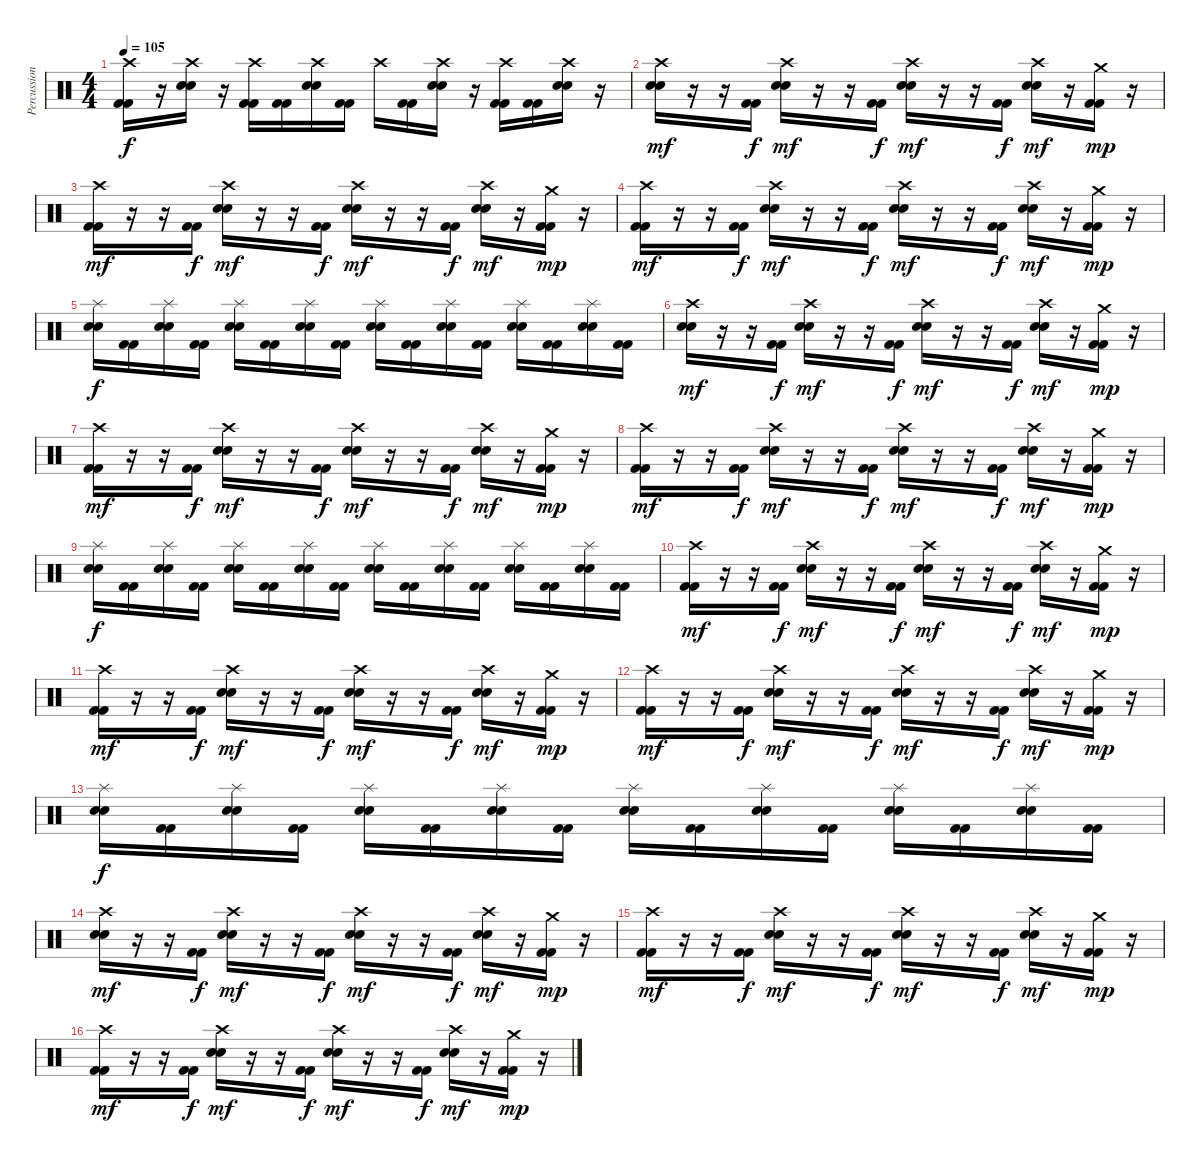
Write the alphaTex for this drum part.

\track ("Percussions" "Percussion") {instrument percussion}
\staff {score}
\articulation defaults
\ts (4 4)
\tempo 105
\clef neutral
\ks c
("Crash high (hit)" "Kick (hit) 2" "Kick (hit) 2").16{dy f} r.16 ("Crash high (hit)" "Electric Snare (hit)" "Electric Snare (hit)").16 r.16 ("Crash high (hit)" "Kick (hit) 2" "Kick (hit) 2").16 ("Kick (hit) 2" "Kick (hit) 2").16 ("Crash high (hit)" "Electric Snare (hit)" "Electric Snare (hit)").16 ("Kick (hit) 2" "Kick (hit) 2").16 "Crash high (hit)".16 ("Kick (hit) 2" "Kick (hit) 2").16 ("Crash high (hit)" "Electric Snare (hit)" "Electric Snare (hit)").16 r.16 ("Crash high (hit)" "Kick (hit) 2" "Kick (hit) 2").16 ("Kick (hit) 2" "Kick (hit) 2").16 ("Crash high (hit)" "Electric Snare (hit)" "Electric Snare (hit)").16 r.16 |
("Crash high (hit)" "Electric Snare (hit)" "Electric Snare (hit)").16{dy mf} r.16 r.16 ("Kick (hit) 2" "Kick (hit) 2").16{dy f} ("Crash high (hit)" "Electric Snare (hit)" "Electric Snare (hit)").16{dy mf} r.16 r.16 ("Kick (hit) 2" "Kick (hit) 2").16{dy f} ("Crash high (hit)" "Electric Snare (hit)" "Electric Snare (hit)").16{dy mf} r.16 r.16 ("Kick (hit) 2" "Kick (hit) 2").16{dy f} ("Crash high (hit)" "Electric Snare (hit)" "Electric Snare (hit)").16{dy mf} r.16 ("Crash medium (hit)" "Kick (hit) 2" "Kick (hit) 2").16{dy mp} r.16 |
("Crash high (hit)" "Kick (hit) 2" "Kick (hit) 2").16{dy mf} r.16 r.16 ("Kick (hit) 2" "Kick (hit) 2").16{dy f} ("Crash high (hit)" "Electric Snare (hit)" "Electric Snare (hit)").16{dy mf} r.16 r.16 ("Kick (hit) 2" "Kick (hit) 2").16{dy f} ("Crash high (hit)" "Electric Snare (hit)" "Electric Snare (hit)").16{dy mf} r.16 r.16 ("Kick (hit) 2" "Kick (hit) 2").16{dy f} ("Crash high (hit)" "Electric Snare (hit)" "Electric Snare (hit)").16{dy mf} r.16 ("Crash medium (hit)" "Kick (hit) 2" "Kick (hit) 2").16{dy mp} r.16 |
("Crash high (hit)" "Kick (hit) 2" "Kick (hit) 2").16{dy mf} r.16 r.16 ("Kick (hit) 2" "Kick (hit) 2").16{dy f} ("Crash high (hit)" "Electric Snare (hit)" "Electric Snare (hit)").16{dy mf} r.16 r.16 ("Kick (hit) 2" "Kick (hit) 2").16{dy f} ("Crash high (hit)" "Electric Snare (hit)" "Electric Snare (hit)").16{dy mf} r.16 r.16 ("Kick (hit) 2" "Kick (hit) 2").16{dy f} ("Crash high (hit)" "Electric Snare (hit)" "Electric Snare (hit)").16{dy mf} r.16 ("Crash medium (hit)" "Kick (hit) 2" "Kick (hit) 2").16{dy mp} r.16 |
("Splash (hit)" "Electric Snare (hit)" "Electric Snare (hit)").16{dy f} ("Kick (hit) 2" "Kick (hit) 2").16 ("Splash (hit)" "Electric Snare (hit)" "Electric Snare (hit)").16 ("Kick (hit) 2" "Kick (hit) 2").16 ("Splash (hit)" "Electric Snare (hit)" "Electric Snare (hit)").16 ("Kick (hit) 2" "Kick (hit) 2").16 ("Splash (hit)" "Electric Snare (hit)" "Electric Snare (hit)").16 ("Kick (hit) 2" "Kick (hit) 2").16 ("Splash (hit)" "Electric Snare (hit)" "Electric Snare (hit)").16 ("Kick (hit) 2" "Kick (hit) 2").16 ("Splash (hit)" "Electric Snare (hit)" "Electric Snare (hit)").16 ("Kick (hit) 2" "Kick (hit) 2").16 ("Splash (hit)" "Electric Snare (hit)" "Electric Snare (hit)").16 ("Kick (hit) 2" "Kick (hit) 2").16 ("Splash (hit)" "Electric Snare (hit)" "Electric Snare (hit)").16 ("Kick (hit) 2" "Kick (hit) 2").16 |
("Crash high (hit)" "Electric Snare (hit)" "Electric Snare (hit)").16{dy mf} r.16 r.16 ("Kick (hit) 2" "Kick (hit) 2").16{dy f} ("Crash high (hit)" "Electric Snare (hit)" "Electric Snare (hit)").16{dy mf} r.16 r.16 ("Kick (hit) 2" "Kick (hit) 2").16{dy f} ("Crash high (hit)" "Electric Snare (hit)" "Electric Snare (hit)").16{dy mf} r.16 r.16 ("Kick (hit) 2" "Kick (hit) 2").16{dy f} ("Crash high (hit)" "Electric Snare (hit)" "Electric Snare (hit)").16{dy mf} r.16 ("Crash medium (hit)" "Kick (hit) 2" "Kick (hit) 2").16{dy mp} r.16 |
("Crash high (hit)" "Kick (hit) 2" "Kick (hit) 2").16{dy mf} r.16 r.16 ("Kick (hit) 2" "Kick (hit) 2").16{dy f} ("Crash high (hit)" "Electric Snare (hit)" "Electric Snare (hit)").16{dy mf} r.16 r.16 ("Kick (hit) 2" "Kick (hit) 2").16{dy f} ("Crash high (hit)" "Electric Snare (hit)" "Electric Snare (hit)").16{dy mf} r.16 r.16 ("Kick (hit) 2" "Kick (hit) 2").16{dy f} ("Crash high (hit)" "Electric Snare (hit)" "Electric Snare (hit)").16{dy mf} r.16 ("Crash medium (hit)" "Kick (hit) 2" "Kick (hit) 2").16{dy mp} r.16 |
("Crash high (hit)" "Kick (hit) 2" "Kick (hit) 2").16{dy mf} r.16 r.16 ("Kick (hit) 2" "Kick (hit) 2").16{dy f} ("Crash high (hit)" "Electric Snare (hit)" "Electric Snare (hit)").16{dy mf} r.16 r.16 ("Kick (hit) 2" "Kick (hit) 2").16{dy f} ("Crash high (hit)" "Electric Snare (hit)" "Electric Snare (hit)").16{dy mf} r.16 r.16 ("Kick (hit) 2" "Kick (hit) 2").16{dy f} ("Crash high (hit)" "Electric Snare (hit)" "Electric Snare (hit)").16{dy mf} r.16 ("Crash medium (hit)" "Kick (hit) 2" "Kick (hit) 2").16{dy mp} r.16 |
("Splash (hit)" "Electric Snare (hit)" "Electric Snare (hit)").16{dy f} ("Kick (hit) 2" "Kick (hit) 2").16 ("Splash (hit)" "Electric Snare (hit)" "Electric Snare (hit)").16 ("Kick (hit) 2" "Kick (hit) 2").16 ("Splash (hit)" "Electric Snare (hit)" "Electric Snare (hit)").16 ("Kick (hit) 2" "Kick (hit) 2").16 ("Splash (hit)" "Electric Snare (hit)" "Electric Snare (hit)").16 ("Kick (hit) 2" "Kick (hit) 2").16 ("Splash (hit)" "Electric Snare (hit)" "Electric Snare (hit)").16 ("Kick (hit) 2" "Kick (hit) 2").16 ("Splash (hit)" "Electric Snare (hit)" "Electric Snare (hit)").16 ("Kick (hit) 2" "Kick (hit) 2").16 ("Splash (hit)" "Electric Snare (hit)" "Electric Snare (hit)").16 ("Kick (hit) 2" "Kick (hit) 2").16 ("Splash (hit)" "Electric Snare (hit)" "Electric Snare (hit)").16 ("Kick (hit) 2" "Kick (hit) 2").16 |
("Crash high (hit)" "Kick (hit) 2" "Kick (hit) 2").16{dy mf} r.16 r.16 ("Kick (hit) 2" "Kick (hit) 2").16{dy f} ("Crash high (hit)" "Electric Snare (hit)" "Electric Snare (hit)").16{dy mf} r.16 r.16 ("Kick (hit) 2" "Kick (hit) 2").16{dy f} ("Crash high (hit)" "Electric Snare (hit)" "Electric Snare (hit)").16{dy mf} r.16 r.16 ("Kick (hit) 2" "Kick (hit) 2").16{dy f} ("Crash high (hit)" "Electric Snare (hit)" "Electric Snare (hit)").16{dy mf} r.16 ("Crash medium (hit)" "Kick (hit) 2" "Kick (hit) 2").16{dy mp} r.16 |
("Crash high (hit)" "Kick (hit) 2" "Kick (hit) 2").16{dy mf} r.16 r.16 ("Kick (hit) 2" "Kick (hit) 2").16{dy f} ("Crash high (hit)" "Electric Snare (hit)" "Electric Snare (hit)").16{dy mf} r.16 r.16 ("Kick (hit) 2" "Kick (hit) 2").16{dy f} ("Crash high (hit)" "Electric Snare (hit)" "Electric Snare (hit)").16{dy mf} r.16 r.16 ("Kick (hit) 2" "Kick (hit) 2").16{dy f} ("Crash high (hit)" "Electric Snare (hit)" "Electric Snare (hit)").16{dy mf} r.16 ("Crash medium (hit)" "Kick (hit) 2" "Kick (hit) 2").16{dy mp} r.16 |
("Crash high (hit)" "Kick (hit) 2" "Kick (hit) 2").16{dy mf} r.16 r.16 ("Kick (hit) 2" "Kick (hit) 2").16{dy f} ("Crash high (hit)" "Electric Snare (hit)" "Electric Snare (hit)").16{dy mf} r.16 r.16 ("Kick (hit) 2" "Kick (hit) 2").16{dy f} ("Crash high (hit)" "Electric Snare (hit)" "Electric Snare (hit)").16{dy mf} r.16 r.16 ("Kick (hit) 2" "Kick (hit) 2").16{dy f} ("Crash high (hit)" "Electric Snare (hit)" "Electric Snare (hit)").16{dy mf} r.16 ("Crash medium (hit)" "Kick (hit) 2" "Kick (hit) 2").16{dy mp} r.16 |
("Splash (hit)" "Electric Snare (hit)" "Electric Snare (hit)").16{dy f} ("Kick (hit) 2" "Kick (hit) 2").16 ("Splash (hit)" "Electric Snare (hit)" "Electric Snare (hit)").16 ("Kick (hit) 2" "Kick (hit) 2").16 ("Splash (hit)" "Electric Snare (hit)" "Electric Snare (hit)").16 ("Kick (hit) 2" "Kick (hit) 2").16 ("Splash (hit)" "Electric Snare (hit)" "Electric Snare (hit)").16 ("Kick (hit) 2" "Kick (hit) 2").16 ("Splash (hit)" "Electric Snare (hit)" "Electric Snare (hit)").16 ("Kick (hit) 2" "Kick (hit) 2").16 ("Splash (hit)" "Electric Snare (hit)" "Electric Snare (hit)").16 ("Kick (hit) 2" "Kick (hit) 2").16 ("Splash (hit)" "Electric Snare (hit)" "Electric Snare (hit)").16 ("Kick (hit) 2" "Kick (hit) 2").16 ("Splash (hit)" "Electric Snare (hit)" "Electric Snare (hit)").16 ("Kick (hit) 2" "Kick (hit) 2").16 |
("Crash high (hit)" "Electric Snare (hit)" "Electric Snare (hit)").16{dy mf} r.16 r.16 ("Kick (hit) 2" "Kick (hit) 2").16{dy f} ("Crash high (hit)" "Electric Snare (hit)" "Electric Snare (hit)").16{dy mf} r.16 r.16 ("Kick (hit) 2" "Kick (hit) 2").16{dy f} ("Crash high (hit)" "Electric Snare (hit)" "Electric Snare (hit)").16{dy mf} r.16 r.16 ("Kick (hit) 2" "Kick (hit) 2").16{dy f} ("Crash high (hit)" "Electric Snare (hit)" "Electric Snare (hit)").16{dy mf} r.16 ("Crash medium (hit)" "Kick (hit) 2" "Kick (hit) 2").16{dy mp} r.16 |
("Crash high (hit)" "Kick (hit) 2" "Kick (hit) 2").16{dy mf} r.16 r.16 ("Kick (hit) 2" "Kick (hit) 2").16{dy f} ("Crash high (hit)" "Electric Snare (hit)" "Electric Snare (hit)").16{dy mf} r.16 r.16 ("Kick (hit) 2" "Kick (hit) 2").16{dy f} ("Crash high (hit)" "Electric Snare (hit)" "Electric Snare (hit)").16{dy mf} r.16 r.16 ("Kick (hit) 2" "Kick (hit) 2").16{dy f} ("Crash high (hit)" "Electric Snare (hit)" "Electric Snare (hit)").16{dy mf} r.16 ("Crash medium (hit)" "Kick (hit) 2" "Kick (hit) 2").16{dy mp} r.16 |
("Crash high (hit)" "Kick (hit) 2" "Kick (hit) 2").16{dy mf} r.16 r.16 ("Kick (hit) 2" "Kick (hit) 2").16{dy f} ("Crash high (hit)" "Electric Snare (hit)" "Electric Snare (hit)").16{dy mf} r.16 r.16 ("Kick (hit) 2" "Kick (hit) 2").16{dy f} ("Crash high (hit)" "Electric Snare (hit)" "Electric Snare (hit)").16{dy mf} r.16 r.16 ("Kick (hit) 2" "Kick (hit) 2").16{dy f} ("Crash high (hit)" "Electric Snare (hit)" "Electric Snare (hit)").16{dy mf} r.16 ("Crash medium (hit)" "Kick (hit) 2" "Kick (hit) 2").16{dy mp} r.16
